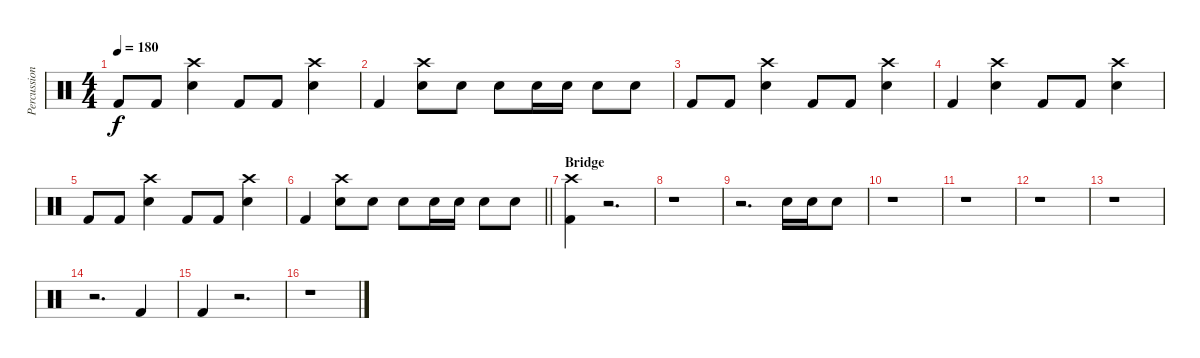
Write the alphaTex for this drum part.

\track ("Percussion" "Percussion") {instrument percussion}
\staff {score}
\articulation defaults
\ts (4 4)
\tempo 180
\clef neutral
\ks c "Kick (hit) 2".8{dy f} "Kick (hit) 2".8
("Crash high (hit)" "Snare (hit) 2").4 "Kick (hit) 2".8 "Kick (hit) 2".8 ("Crash high (hit)" "Snare (hit) 2").4 |
"Kick (hit) 2".4 ("Crash high (hit)" "Snare (hit) 2").8 "Snare (hit) 2".8 "Snare (hit) 2".8 "Snare (hit) 2".16 "Snare (hit) 2".16 "Snare (hit) 2".8 "Snare (hit) 2".8 |
"Kick (hit) 2".8 "Kick (hit) 2".8 ("Crash high (hit)" "Snare (hit) 2").4 "Kick (hit) 2".8 "Kick (hit) 2".8 ("Crash high (hit)" "Snare (hit) 2").4 |
"Kick (hit) 2".4 ("Crash high (hit)" "Snare (hit) 2").4 "Kick (hit) 2".8 "Kick (hit) 2".8 ("Crash high (hit)" "Snare (hit) 2").4 |
"Kick (hit) 2".8 "Kick (hit) 2".8 ("Crash high (hit)" "Snare (hit) 2").4 "Kick (hit) 2".8 "Kick (hit) 2".8 ("Crash high (hit)" "Snare (hit) 2").4 |
\barLineRight lightlight "Kick (hit) 2".4
("Crash high (hit)" "Snare (hit) 2").8 "Snare (hit) 2".8 "Snare (hit) 2".8 "Snare (hit) 2".16 "Snare (hit) 2".16 "Snare (hit) 2".8 "Snare (hit) 2".8 |
\section ("" "Bridge")
("Crash high (hit)" "Kick (hit) 2").4 r.2{d} |
r.1 |
r.2{d} "Snare (hit) 2".16 "Snare (hit) 2".16 "Snare (hit) 2".8 |
r.1 |
r.1 |
r.1 |
r.1 |
r.2{d} "Kick (hit) 2".4 |
"Kick (hit) 2".4 r.2{d} |
r.1
